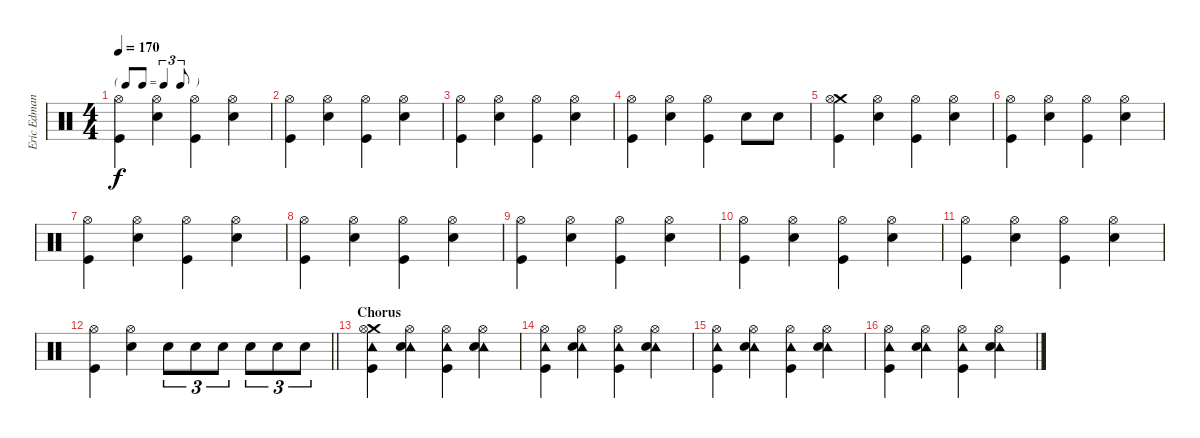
\track ("Eric Edman - Drums" "Eric Edman") {instrument percussion}
\staff {score}
\articulation defaults
\ts (4 4)
\tf triplet8th
\tempo 170
\clef neutral
\ks c
("Hi-Hat (open)" "Kick (hit)").4{dy f} ("Hi-Hat (open)" "Snare (hit) 2").4 ("Hi-Hat (open)" "Kick (hit)").4 ("Hi-Hat (open)" "Snare (hit) 2").4 |
("Hi-Hat (open)" "Kick (hit)").4 ("Hi-Hat (open)" "Snare (hit) 2").4 ("Hi-Hat (open)" "Kick (hit)").4 ("Hi-Hat (open)" "Snare (hit) 2").4 |
("Hi-Hat (open)" "Kick (hit)").4 ("Hi-Hat (open)" "Snare (hit) 2").4 ("Hi-Hat (open)" "Kick (hit)").4 ("Hi-Hat (open)" "Snare (hit) 2").4 |
("Hi-Hat (open)" "Kick (hit)").4 ("Hi-Hat (open)" "Snare (hit) 2").4 ("Hi-Hat (open)" "Kick (hit)").4 "Snare (hit) 2".8 "Snare (hit) 2".8 |
("Crash medium (hit)" "Hi-Hat (open)" "Kick (hit)").4 ("Hi-Hat (open)" "Snare (hit) 2").4 ("Hi-Hat (open)" "Kick (hit)").4 ("Hi-Hat (open)" "Snare (hit) 2").4 |
("Hi-Hat (open)" "Kick (hit)").4 ("Hi-Hat (open)" "Snare (hit) 2").4 ("Hi-Hat (open)" "Kick (hit)").4 ("Hi-Hat (open)" "Snare (hit) 2").4 |
("Hi-Hat (open)" "Kick (hit)").4 ("Hi-Hat (open)" "Snare (hit) 2").4 ("Hi-Hat (open)" "Kick (hit)").4 ("Hi-Hat (open)" "Snare (hit) 2").4 |
("Hi-Hat (open)" "Kick (hit)").4 ("Hi-Hat (open)" "Snare (hit) 2").4 ("Hi-Hat (open)" "Kick (hit)").4 ("Hi-Hat (open)" "Snare (hit) 2").4 |
("Hi-Hat (open)" "Kick (hit)").4 ("Hi-Hat (open)" "Snare (hit) 2").4 ("Hi-Hat (open)" "Kick (hit)").4 ("Hi-Hat (open)" "Snare (hit) 2").4 |
("Hi-Hat (open)" "Kick (hit)").4 ("Hi-Hat (open)" "Snare (hit) 2").4 ("Hi-Hat (open)" "Kick (hit)").4 ("Hi-Hat (open)" "Snare (hit) 2").4 |
("Hi-Hat (open)" "Kick (hit)").4 ("Hi-Hat (open)" "Snare (hit) 2").4 ("Hi-Hat (open)" "Kick (hit)").4 ("Hi-Hat (open)" "Snare (hit) 2").4 |
\barLineRight lightlight
("Hi-Hat (open)" "Kick (hit)").4 ("Hi-Hat (open)" "Snare (hit) 2").4 "Snare (hit) 2".8{tu (3 2)} "Snare (hit) 2".8{tu (3 2)} "Snare (hit) 2".8{tu (3 2)} "Snare (hit) 2".8{tu (3 2)} "Snare (hit) 2".8{tu (3 2)} "Snare (hit) 2".8{tu (3 2)} |
\section ("" "Chorus")
("Crash medium (hit)" "Tambourine (hit)" "Kick (hit)" "Hi-Hat (open)").4 ("Tambourine (hit)" "Snare (hit) 2" "Hi-Hat (open)").4 ("Tambourine (hit)" "Kick (hit)" "Hi-Hat (open)").4 ("Tambourine (hit)" "Snare (hit) 2" "Hi-Hat (open)").4 |
("Tambourine (hit)" "Kick (hit)" "Hi-Hat (open)").4 ("Tambourine (hit)" "Snare (hit) 2" "Hi-Hat (open)").4 ("Tambourine (hit)" "Kick (hit)" "Hi-Hat (open)").4 ("Tambourine (hit)" "Snare (hit) 2" "Hi-Hat (open)").4 |
("Tambourine (hit)" "Kick (hit)" "Hi-Hat (open)").4 ("Tambourine (hit)" "Snare (hit) 2" "Hi-Hat (open)").4 ("Tambourine (hit)" "Kick (hit)" "Hi-Hat (open)").4 ("Tambourine (hit)" "Snare (hit) 2" "Hi-Hat (open)").4 |
("Tambourine (hit)" "Kick (hit)" "Hi-Hat (open)").4 ("Tambourine (hit)" "Snare (hit) 2" "Hi-Hat (open)").4 ("Tambourine (hit)" "Kick (hit)" "Hi-Hat (open)").4 ("Tambourine (hit)" "Snare (hit) 2" "Hi-Hat (open)").4
